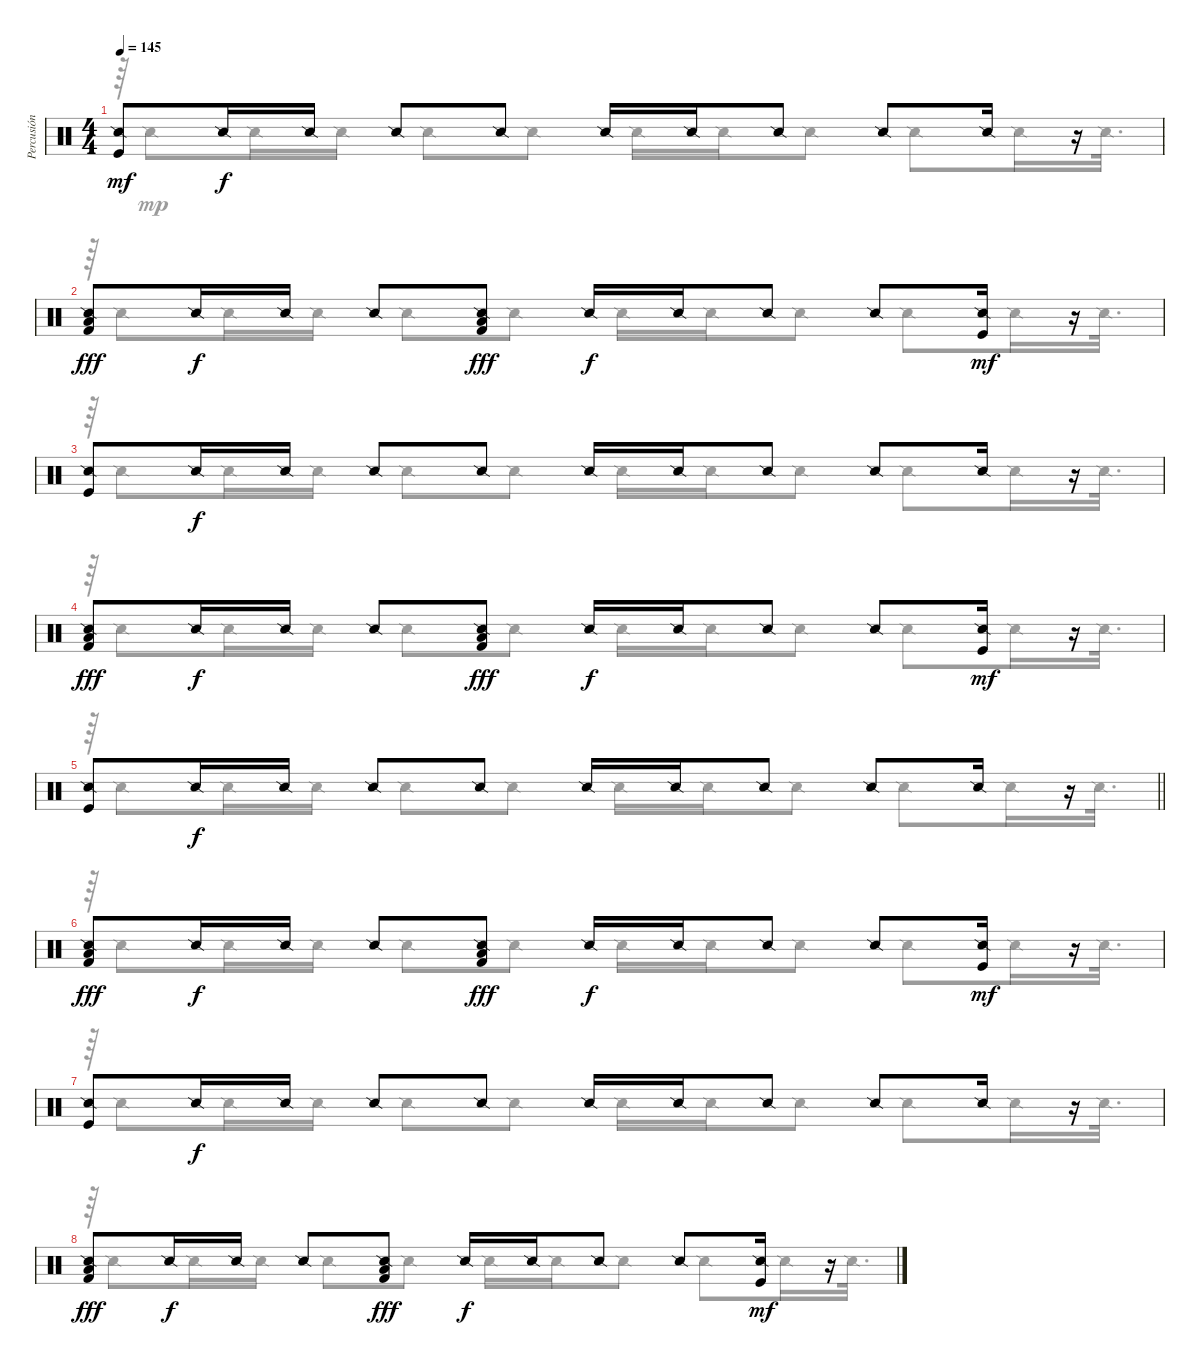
\track ("Percusión" "Percusión") {instrument percussion}
\staff {score}
\articulation defaults
\voice
\ts (4 4)
\tempo 145
\clef neutral
\ks c
("Snare (side stick) 2" "Kick (hit)").8{dy mf} "Snare (side stick) 2".16{dy f} "Snare (side stick) 2".16 "Snare (side stick) 2".8 "Snare (side stick) 2".8 "Snare (side stick) 2".16 "Snare (side stick) 2".16 "Snare (side stick) 2".8 "Snare (side stick) 2".8 "Snare (side stick) 2".16 r.16 |
("Snare (side stick) 2" "Low Floor Tom (hit)" "Kick (hit) 2").8{dy fff} "Snare (side stick) 2".16{dy f} "Snare (side stick) 2".16 "Snare (side stick) 2".8 ("Snare (side stick) 2" "Low Floor Tom (hit)" "Kick (hit) 2").8{dy fff} "Snare (side stick) 2".16{dy f} "Snare (side stick) 2".16 "Snare (side stick) 2".8 "Snare (side stick) 2".8 ("Snare (side stick) 2" "Kick (hit)").16{dy mf} r.16 |
("Snare (side stick) 2" "Kick (hit)").8 "Snare (side stick) 2".16{dy f} "Snare (side stick) 2".16 "Snare (side stick) 2".8 "Snare (side stick) 2".8 "Snare (side stick) 2".16 "Snare (side stick) 2".16 "Snare (side stick) 2".8 "Snare (side stick) 2".8 "Snare (side stick) 2".16 r.16 |
("Snare (side stick) 2" "Low Floor Tom (hit)" "Kick (hit) 2").8{dy fff} "Snare (side stick) 2".16{dy f} "Snare (side stick) 2".16 "Snare (side stick) 2".8 ("Snare (side stick) 2" "Low Floor Tom (hit)" "Kick (hit) 2").8{dy fff} "Snare (side stick) 2".16{dy f} "Snare (side stick) 2".16 "Snare (side stick) 2".8 "Snare (side stick) 2".8 ("Snare (side stick) 2" "Kick (hit)").16{dy mf} r.16 |
\barLineRight lightlight
("Snare (side stick) 2" "Kick (hit)").8 "Snare (side stick) 2".16{dy f} "Snare (side stick) 2".16 "Snare (side stick) 2".8 "Snare (side stick) 2".8 "Snare (side stick) 2".16 "Snare (side stick) 2".16 "Snare (side stick) 2".8 "Snare (side stick) 2".8 "Snare (side stick) 2".16 r.16 |
("Snare (side stick) 2" "Low Floor Tom (hit)" "Kick (hit) 2").8{dy fff} "Snare (side stick) 2".16{dy f} "Snare (side stick) 2".16 "Snare (side stick) 2".8 ("Snare (side stick) 2" "Low Floor Tom (hit)" "Kick (hit) 2").8{dy fff} "Snare (side stick) 2".16{dy f} "Snare (side stick) 2".16 "Snare (side stick) 2".8 "Snare (side stick) 2".8 ("Snare (side stick) 2" "Kick (hit)").16{dy mf} r.16 |
("Snare (side stick) 2" "Kick (hit)").8 "Snare (side stick) 2".16{dy f} "Snare (side stick) 2".16 "Snare (side stick) 2".8 "Snare (side stick) 2".8 "Snare (side stick) 2".16 "Snare (side stick) 2".16 "Snare (side stick) 2".8 "Snare (side stick) 2".8 "Snare (side stick) 2".16 r.16 |
("Snare (side stick) 2" "Low Floor Tom (hit)" "Kick (hit) 2").8{dy fff} "Snare (side stick) 2".16{dy f} "Snare (side stick) 2".16 "Snare (side stick) 2".8 ("Snare (side stick) 2" "Low Floor Tom (hit)" "Kick (hit) 2").8{dy fff} "Snare (side stick) 2".16{dy f} "Snare (side stick) 2".16 "Snare (side stick) 2".8 "Snare (side stick) 2".8 ("Snare (side stick) 2" "Kick (hit)").16{dy mf} r.16
\voice
\clef neutral
\ottava regular
\simile none
\ks c
r.64{dy mp} "Snare (side stick) 2".8 "Snare (side stick) 2".16 "Snare (side stick) 2".16 "Snare (side stick) 2".8 "Snare (side stick) 2".8 "Snare (side stick) 2".16 "Snare (side stick) 2".16 "Snare (side stick) 2".8 "Snare (side stick) 2".8 "Snare (side stick) 2".16 "Snare (side stick) 2".32{d} |
r.64 "Snare (side stick) 2".8 "Snare (side stick) 2".16 "Snare (side stick) 2".16 "Snare (side stick) 2".8 "Snare (side stick) 2".8 "Snare (side stick) 2".16 "Snare (side stick) 2".16 "Snare (side stick) 2".8 "Snare (side stick) 2".8 "Snare (side stick) 2".16 "Snare (side stick) 2".32{d} |
r.64 "Snare (side stick) 2".8 "Snare (side stick) 2".16 "Snare (side stick) 2".16 "Snare (side stick) 2".8 "Snare (side stick) 2".8 "Snare (side stick) 2".16 "Snare (side stick) 2".16 "Snare (side stick) 2".8 "Snare (side stick) 2".8 "Snare (side stick) 2".16 "Snare (side stick) 2".32{d} |
r.64 "Snare (side stick) 2".8 "Snare (side stick) 2".16 "Snare (side stick) 2".16 "Snare (side stick) 2".8 "Snare (side stick) 2".8 "Snare (side stick) 2".16 "Snare (side stick) 2".16 "Snare (side stick) 2".8 "Snare (side stick) 2".8 "Snare (side stick) 2".16 "Snare (side stick) 2".32{d} |
\barLineRight lightlight
r.64 "Snare (side stick) 2".8 "Snare (side stick) 2".16 "Snare (side stick) 2".16 "Snare (side stick) 2".8 "Snare (side stick) 2".8 "Snare (side stick) 2".16 "Snare (side stick) 2".16 "Snare (side stick) 2".8 "Snare (side stick) 2".8 "Snare (side stick) 2".16 "Snare (side stick) 2".32{d} |
r.64 "Snare (side stick) 2".8 "Snare (side stick) 2".16 "Snare (side stick) 2".16 "Snare (side stick) 2".8 "Snare (side stick) 2".8 "Snare (side stick) 2".16 "Snare (side stick) 2".16 "Snare (side stick) 2".8 "Snare (side stick) 2".8 "Snare (side stick) 2".16 "Snare (side stick) 2".32{d} |
r.64 "Snare (side stick) 2".8 "Snare (side stick) 2".16 "Snare (side stick) 2".16 "Snare (side stick) 2".8 "Snare (side stick) 2".8 "Snare (side stick) 2".16 "Snare (side stick) 2".16 "Snare (side stick) 2".8 "Snare (side stick) 2".8 "Snare (side stick) 2".16 "Snare (side stick) 2".32{d} |
r.64 "Snare (side stick) 2".8 "Snare (side stick) 2".16 "Snare (side stick) 2".16 "Snare (side stick) 2".8 "Snare (side stick) 2".8 "Snare (side stick) 2".16 "Snare (side stick) 2".16 "Snare (side stick) 2".8 "Snare (side stick) 2".8 "Snare (side stick) 2".16 "Snare (side stick) 2".32{d}
